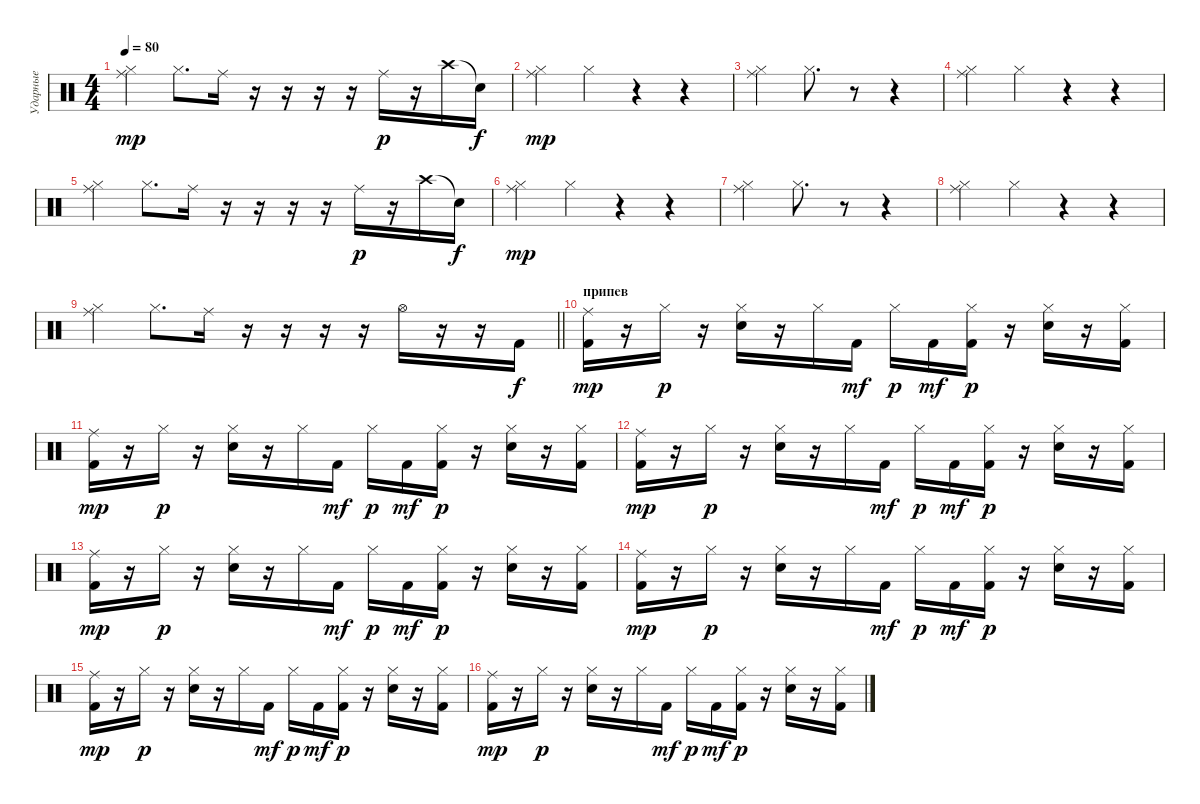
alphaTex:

\track ("Ударные" "Ударные") {instrument percussion}
\staff {score}
\articulation defaults
\ts (4 4)
\tempo 80
\clef neutral
\ks c
("Ride (middle)" "Hi-Hat (closed)").4{dy mp} "Hi-Hat (closed)".8{d} "Ride (middle)".16 r.16 r.16 r.16 r.16 "Ride (middle)".16{dy p} r.16 "Crash high (hit)".16 "Snare (hit)"{t}.16{dy f} |
("Ride (middle)" "Hi-Hat (closed)").4{dy mp} "Hi-Hat (closed)".4 r.4 r.4 |
("Ride (middle)" "Hi-Hat (closed)").4 "Hi-Hat (closed)".8{d} r.8 r.4 |
("Ride (middle)" "Hi-Hat (closed)").4 "Hi-Hat (closed)".4 r.4 r.4 |
("Ride (middle)" "Hi-Hat (closed)").4 "Hi-Hat (closed)".8{d} "Ride (middle)".16 r.16 r.16 r.16 r.16 "Ride (middle)".16{dy p} r.16 "Crash high (hit)".16 "Snare (hit)"{t}.16{dy f} |
("Ride (middle)" "Hi-Hat (closed)").4{dy mp} "Hi-Hat (closed)".4 r.4 r.4 |
("Ride (middle)" "Hi-Hat (closed)").4 "Hi-Hat (closed)".8{d} r.8 r.4 |
("Ride (middle)" "Hi-Hat (closed)").4 "Hi-Hat (closed)".4 r.4 r.4 |
\barLineRight lightlight
("Ride (middle)" "Hi-Hat (closed)").4 "Hi-Hat (closed)".8{d} "Ride (middle)".16 r.16 r.16 r.16 r.16 "Hi-Hat (open)".16 r.16 r.16 "Kick (hit) 2".16{dy f} |
\section ("" "припев")
("Kick (hit) 2" "Ride (middle)").16{dy mp} r.16 "Hi-Hat (closed)".16{dy p} r.16 ("Electric Snare (hit)" "Hi-Hat (closed)").16 r.16 "Hi-Hat (closed)".16 "Kick (hit) 2".16{dy mf} "Hi-Hat (closed)".16{dy p} "Kick (hit) 2".16{dy mf} ("Kick (hit) 2" "Hi-Hat (closed)").16{dy p} r.16 ("Electric Snare (hit)" "Hi-Hat (closed)").16 r.16 ("Kick (hit) 2" "Hi-Hat (closed)").16 |
("Kick (hit) 2" "Ride (middle)").16{dy mp} r.16 "Hi-Hat (closed)".16{dy p} r.16 ("Electric Snare (hit)" "Hi-Hat (closed)").16 r.16 "Hi-Hat (closed)".16 "Kick (hit) 2".16{dy mf} "Hi-Hat (closed)".16{dy p} "Kick (hit) 2".16{dy mf} ("Kick (hit) 2" "Hi-Hat (closed)").16{dy p} r.16 ("Electric Snare (hit)" "Hi-Hat (closed)").16 r.16 ("Kick (hit) 2" "Hi-Hat (closed)").16 |
("Kick (hit) 2" "Ride (middle)").16{dy mp} r.16 "Hi-Hat (closed)".16{dy p} r.16 ("Electric Snare (hit)" "Hi-Hat (closed)").16 r.16 "Hi-Hat (closed)".16 "Kick (hit) 2".16{dy mf} "Hi-Hat (closed)".16{dy p} "Kick (hit) 2".16{dy mf} ("Kick (hit) 2" "Hi-Hat (closed)").16{dy p} r.16 ("Electric Snare (hit)" "Hi-Hat (closed)").16 r.16 ("Kick (hit) 2" "Hi-Hat (closed)").16 |
("Kick (hit) 2" "Ride (middle)").16{dy mp} r.16 "Hi-Hat (closed)".16{dy p} r.16 ("Electric Snare (hit)" "Hi-Hat (closed)").16 r.16 "Hi-Hat (closed)".16 "Kick (hit) 2".16{dy mf} "Hi-Hat (closed)".16{dy p} "Kick (hit) 2".16{dy mf} ("Kick (hit) 2" "Hi-Hat (closed)").16{dy p} r.16 ("Electric Snare (hit)" "Hi-Hat (closed)").16 r.16 ("Kick (hit) 2" "Hi-Hat (closed)").16 |
("Kick (hit) 2" "Ride (middle)").16{dy mp} r.16 "Hi-Hat (closed)".16{dy p} r.16 ("Electric Snare (hit)" "Hi-Hat (closed)").16 r.16 "Hi-Hat (closed)".16 "Kick (hit) 2".16{dy mf} "Hi-Hat (closed)".16{dy p} "Kick (hit) 2".16{dy mf} ("Kick (hit) 2" "Hi-Hat (closed)").16{dy p} r.16 ("Electric Snare (hit)" "Hi-Hat (closed)").16 r.16 ("Kick (hit) 2" "Hi-Hat (closed)").16 |
("Kick (hit) 2" "Ride (middle)").16{dy mp} r.16 "Hi-Hat (closed)".16{dy p} r.16 ("Electric Snare (hit)" "Hi-Hat (closed)").16 r.16 "Hi-Hat (closed)".16 "Kick (hit) 2".16{dy mf} "Hi-Hat (closed)".16{dy p} "Kick (hit) 2".16{dy mf} ("Kick (hit) 2" "Hi-Hat (closed)").16{dy p} r.16 ("Electric Snare (hit)" "Hi-Hat (closed)").16 r.16 ("Kick (hit) 2" "Hi-Hat (closed)").16 |
("Kick (hit) 2" "Ride (middle)").16{dy mp} r.16 "Hi-Hat (closed)".16{dy p} r.16 ("Electric Snare (hit)" "Hi-Hat (closed)").16 r.16 "Hi-Hat (closed)".16 "Kick (hit) 2".16{dy mf} "Hi-Hat (closed)".16{dy p} "Kick (hit) 2".16{dy mf} ("Kick (hit) 2" "Hi-Hat (closed)").16{dy p} r.16 ("Electric Snare (hit)" "Hi-Hat (closed)").16 r.16 ("Kick (hit) 2" "Hi-Hat (closed)").16
